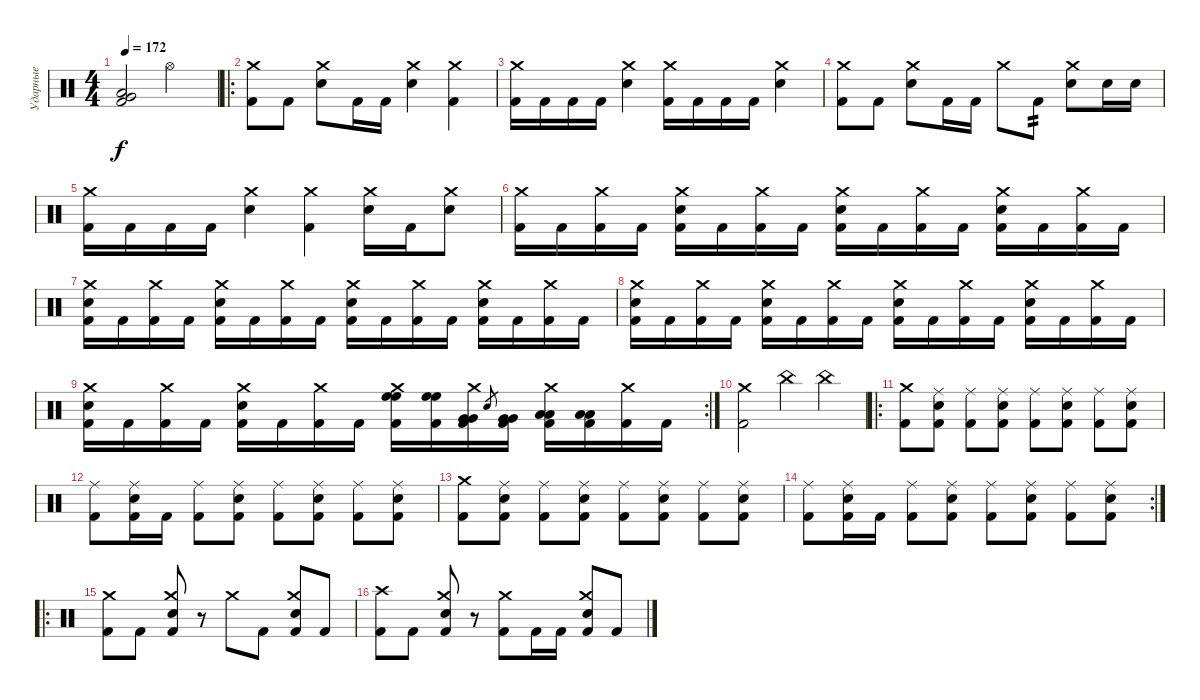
\track ("Ударные" "Ударные") {instrument percussion}
\staff {score}
\articulation defaults
\ts (4 4)
\tempo 172
\clef neutral
\ks c
("Low Floor Tom (hit)" "Very Low Tom (hit)" "Kick (hit) 2").2{dy f} "Hi-Hat (open)".2 |
\ro
("Crash medium (hit)" "Kick (hit) 2").8 "Kick (hit) 2".8 ("Crash medium (hit)" "Electric Snare (hit)").8 "Kick (hit) 2".16 "Kick (hit) 2".16 ("Crash medium (hit)" "Electric Snare (hit)").4 ("Crash medium (hit)" "Kick (hit) 2").4 |
("Crash medium (hit)" "Kick (hit) 2").16 "Kick (hit) 2".16 "Kick (hit) 2".16 "Kick (hit) 2".16 ("Crash medium (hit)" "Electric Snare (hit)").4 ("Crash medium (hit)" "Kick (hit) 2").16 "Kick (hit) 2".16 "Kick (hit) 2".16 "Kick (hit) 2".16 ("Crash medium (hit)" "Electric Snare (hit)").4 |
("Crash medium (hit)" "Kick (hit) 2").8 "Kick (hit) 2".8 ("Crash medium (hit)" "Electric Snare (hit)").8 "Kick (hit) 2".16 "Kick (hit) 2".16 "Crash medium (hit)".8 "Kick (hit) 2".8{tp 2} ("Crash medium (hit)" "Electric Snare (hit)").8 "Electric Snare (hit)".16 "Electric Snare (hit)".16 |
("Crash medium (hit)" "Kick (hit) 2").16 "Kick (hit) 2".16 "Kick (hit) 2".16 "Kick (hit) 2".16 ("Crash medium (hit)" "Electric Snare (hit)").4 ("Crash medium (hit)" "Kick (hit) 2").4 ("Crash medium (hit)" "Electric Snare (hit)").16 "Kick (hit) 2".16 ("Crash medium (hit)" "Electric Snare (hit)").8 |
("Crash medium (hit)" "Kick (hit) 2").16 "Kick (hit) 2".16 ("Crash medium (hit)" "Kick (hit) 2").16 "Kick (hit) 2".16 ("Crash medium (hit)" "Electric Snare (hit)" "Kick (hit) 2").16 "Kick (hit) 2".16 ("Crash medium (hit)" "Kick (hit) 2").16 "Kick (hit) 2".16 ("Crash medium (hit)" "Electric Snare (hit)" "Kick (hit) 2").16 "Kick (hit) 2".16 ("Crash medium (hit)" "Kick (hit) 2").16 "Kick (hit) 2".16 ("Crash medium (hit)" "Electric Snare (hit)" "Kick (hit) 2").16 "Kick (hit) 2".16 ("Crash medium (hit)" "Kick (hit) 2").16 "Kick (hit) 2".16 |
("Crash medium (hit)" "Electric Snare (hit)" "Kick (hit) 2").16 "Kick (hit) 2".16 ("Crash medium (hit)" "Kick (hit) 2").16 "Kick (hit) 2".16 ("Crash medium (hit)" "Electric Snare (hit)" "Kick (hit) 2").16 "Kick (hit) 2".16 ("Crash medium (hit)" "Kick (hit) 2").16 "Kick (hit) 2".16 ("Crash medium (hit)" "Electric Snare (hit)" "Kick (hit) 2").16 "Kick (hit) 2".16 ("Crash medium (hit)" "Kick (hit) 2").16 "Kick (hit) 2".16 ("Crash medium (hit)" "Electric Snare (hit)" "Kick (hit) 2").16 "Kick (hit) 2".16 ("Crash medium (hit)" "Kick (hit) 2").16 "Kick (hit) 2".16 |
("Crash medium (hit)" "Electric Snare (hit)" "Kick (hit) 2").16 "Kick (hit) 2".16 ("Crash medium (hit)" "Kick (hit) 2").16 "Kick (hit) 2".16 ("Crash medium (hit)" "Electric Snare (hit)" "Kick (hit) 2").16 "Kick (hit) 2".16 ("Crash medium (hit)" "Kick (hit) 2").16 "Kick (hit) 2".16 ("Crash medium (hit)" "Electric Snare (hit)" "Kick (hit) 2").16 "Kick (hit) 2".16 ("Crash medium (hit)" "Kick (hit) 2").16 "Kick (hit) 2".16 ("Crash medium (hit)" "Electric Snare (hit)" "Kick (hit) 2").16 "Kick (hit) 2".16 ("Crash medium (hit)" "Kick (hit) 2").16 "Kick (hit) 2".16 |
\rc 2
("Crash medium (hit)" "Electric Snare (hit)" "Kick (hit) 2").16 "Kick (hit) 2".16 ("Crash medium (hit)" "Kick (hit) 2").16 "Kick (hit) 2".16 ("Crash medium (hit)" "Electric Snare (hit)" "Kick (hit) 2").16 "Kick (hit) 2".16 ("Crash medium (hit)" "Kick (hit) 2").16 "Kick (hit) 2".16 ("Crash medium (hit)" "High Floor Tom (hit)" "High Floor Tom (hit)" "Kick (hit) 2").16 ("High Floor Tom (hit)" "High Floor Tom (hit)" "Kick (hit) 2").16 ("Crash medium (hit)" "Very Low Tom (hit)" "Very Low Tom (hit)" "Kick (hit) 2").16 "Electric Snare (hit)".8{gr} ("Very Low Tom (hit)" "Very Low Tom (hit)" "Kick (hit) 2").16 ("Crash medium (hit)" "Low Tom (hit)" "Low Tom (hit)" "Kick (hit) 2").16 ("Low Floor Tom (hit)" "Low Floor Tom (hit)" "Kick (hit) 2").16 ("Crash medium (hit)" "Kick (hit) 2").16 "Kick (hit) 2".16 |
("Crash medium (hit)" "Kick (hit) 2").2 "China (hit)".4 "China (hit)".4 |
\ro
("Crash medium (hit)" "Kick (hit) 2").8 ("Ride (middle)" "Electric Snare (hit)" "Kick (hit) 2").8 ("Ride (middle)" "Kick (hit) 2").8 ("Ride (middle)" "Electric Snare (hit)" "Kick (hit) 2").8 ("Ride (middle)" "Kick (hit) 2").8 ("Ride (middle)" "Electric Snare (hit)" "Kick (hit) 2").8 ("Ride (middle)" "Kick (hit) 2").8 ("Ride (middle)" "Electric Snare (hit)" "Kick (hit) 2").8 |
("Ride (middle)" "Kick (hit) 2").8 ("Ride (middle)" "Electric Snare (hit)" "Kick (hit) 2").16 "Kick (hit) 2".16 ("Ride (middle)" "Kick (hit) 2").8 ("Ride (middle)" "Electric Snare (hit)" "Kick (hit) 2").8 ("Ride (middle)" "Kick (hit) 2").8 ("Ride (middle)" "Electric Snare (hit)" "Kick (hit) 2").8 ("Ride (middle)" "Kick (hit) 2").8 ("Ride (middle)" "Electric Snare (hit)" "Kick (hit) 2").8 |
("Crash medium (hit)" "Kick (hit) 2").8 ("Ride (middle)" "Electric Snare (hit)" "Kick (hit) 2").8 ("Ride (middle)" "Kick (hit) 2").8 ("Ride (middle)" "Electric Snare (hit)" "Kick (hit) 2").8 ("Ride (middle)" "Kick (hit) 2").8 ("Ride (middle)" "Electric Snare (hit)" "Kick (hit) 2").8 ("Ride (middle)" "Kick (hit) 2").8 ("Ride (middle)" "Electric Snare (hit)" "Kick (hit) 2").8 |
\rc 2
("Ride (middle)" "Kick (hit) 2").8 ("Ride (middle)" "Electric Snare (hit)" "Kick (hit) 2").16 "Kick (hit) 2".16 ("Ride (middle)" "Kick (hit) 2").8 ("Ride (middle)" "Electric Snare (hit)" "Kick (hit) 2").8 ("Ride (middle)" "Kick (hit) 2").8 ("Ride (middle)" "Electric Snare (hit)" "Kick (hit) 2").8 ("Ride (middle)" "Kick (hit) 2").8 ("Ride (middle)" "Electric Snare (hit)" "Kick (hit) 2").8 |
\ro
("Crash medium (hit)" "Kick (hit) 2").8 "Kick (hit) 2".8 ("Crash medium (hit)" "Electric Snare (hit)" "Kick (hit) 2").8 r.8 "Crash medium (hit)".8 "Kick (hit) 2".8 ("Crash medium (hit)" "Electric Snare (hit)" "Kick (hit) 2").8 "Kick (hit) 2".8 |
("Crash high (hit)" "Kick (hit) 2").8 "Kick (hit) 2".8 ("Crash medium (hit)" "Electric Snare (hit)" "Kick (hit) 2").8 r.8 ("Crash medium (hit)" "Kick (hit) 2").8 "Kick (hit) 2".16 "Kick (hit) 2".16 ("Crash medium (hit)" "Electric Snare (hit)" "Kick (hit) 2").8 "Kick (hit) 2".8
